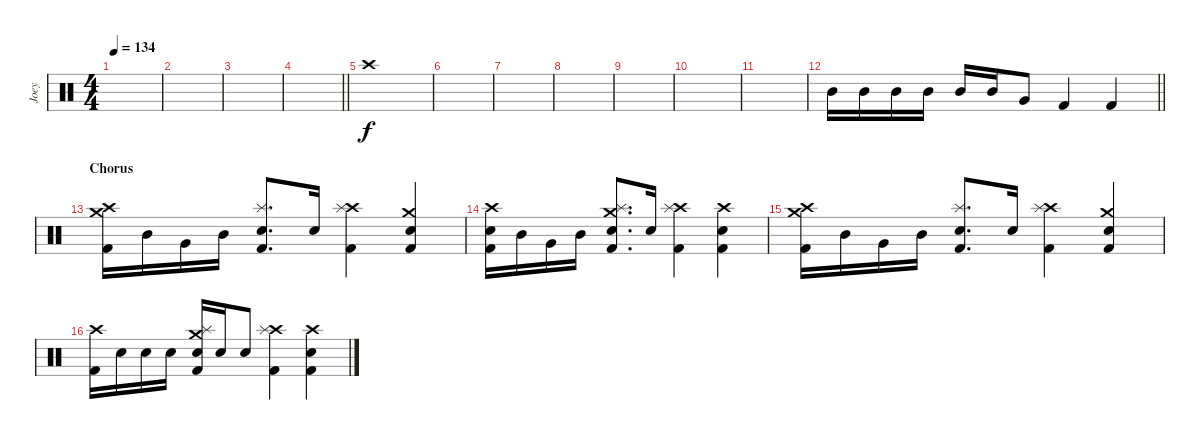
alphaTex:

\track ("Joey" "Joey") {instrument percussion}
\staff {score}
\articulation defaults
\ts (4 4)
\section ("" "")
\tempo 134
\clef neutral
\ks c
|
|
|
\barLineRight lightlight
|
\section ("" "")
"Crash high (hit)".1 |
|
|
|
|
|
|
\barLineRight lightlight "Mid Tom (hit)".16 "Mid Tom (hit)".16 "Mid Tom (hit)".16 "Mid Tom (hit)".16 "Mid Tom (hit)".16 "Mid Tom (hit)".16 "Very Low Tom (hit)".8 "Kick (hit) 2".4 "Kick (hit) 2".4
|
\section ("" "Chorus")
("Crash high (hit)" "Crash medium (hit)" "Kick (hit) 2").16 "Mid Tom (hit)".16 "Very Low Tom (hit)".16 "Mid Tom (hit)".16 ("Splash (hit)" "Electric Snare (hit)" "Kick (hit) 2").8{d} "Electric Snare (hit)".16 ("Crash high (hit)" "Splash (hit)" "Kick (hit) 2").4 ("Crash medium (hit)" "Electric Snare (hit)" "Kick (hit) 2").4 |
("Crash high (hit)" "Electric Snare (hit)" "Kick (hit) 2").16 "Mid Tom (hit)".16 "Very Low Tom (hit)".16 "Mid Tom (hit)".16 ("Crash medium (hit)" "Splash (hit)" "Electric Snare (hit)" "Kick (hit) 2").8{d} "Electric Snare (hit)".16 ("Crash high (hit)" "Splash (hit)" "Kick (hit) 2").4 ("Crash high (hit)" "Electric Snare (hit)" "Kick (hit) 2").4 |
("Crash high (hit)" "Crash medium (hit)" "Kick (hit) 2").16 "Mid Tom (hit)".16 "Very Low Tom (hit)".16 "Mid Tom (hit)".16 ("Splash (hit)" "Electric Snare (hit)" "Kick (hit) 2").8{d} "Electric Snare (hit)".16 ("Crash high (hit)" "Splash (hit)" "Kick (hit) 2").4 ("Crash medium (hit)" "Electric Snare (hit)" "Kick (hit) 2").4 |
("Crash high (hit)" "Kick (hit) 2").16 "Electric Snare (hit)".16 "Electric Snare (hit)".16 "Electric Snare (hit)".16 ("Crash medium (hit)" "Splash (hit)" "Electric Snare (hit)" "Kick (hit) 2").16 "Electric Snare (hit)".16 "Electric Snare (hit)".8 ("Crash high (hit)" "Splash (hit)" "Kick (hit) 2").4 ("Crash high (hit)" "Electric Snare (hit)" "Kick (hit) 2").4
